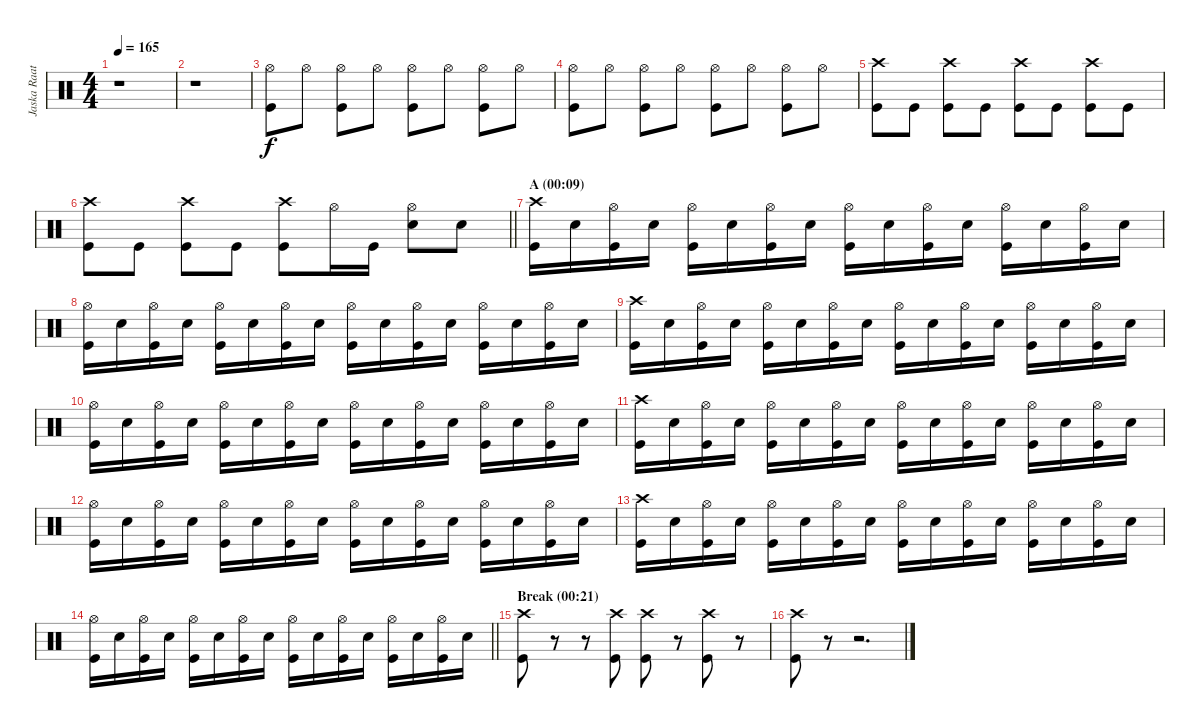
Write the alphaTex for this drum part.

\track ("Jaska Raatikainen" "Jaska Raat") {instrument percussion}
\staff {score}
\articulation defaults
\ts (4 4)
\tempo 165
\clef neutral
\ks c
r.1{dy f} |
r.1 |
("Hi-Hat (open)" "Kick (hit)").8 "Hi-Hat (open)".8 ("Hi-Hat (open)" "Kick (hit)").8 "Hi-Hat (open)".8 ("Hi-Hat (open)" "Kick (hit)").8 "Hi-Hat (open)".8 ("Hi-Hat (open)" "Kick (hit)").8 "Hi-Hat (open)".8 |
("Hi-Hat (open)" "Kick (hit)").8 "Hi-Hat (open)".8 ("Hi-Hat (open)" "Kick (hit)").8 "Hi-Hat (open)".8 ("Hi-Hat (open)" "Kick (hit)").8 "Hi-Hat (open)".8 ("Hi-Hat (open)" "Kick (hit)").8 "Hi-Hat (open)".8 |
("Crash high (hit)" "Kick (hit)").8 "Kick (hit)".8 ("Crash high (hit)" "Kick (hit)").8 "Kick (hit)".8 ("Crash high (hit)" "Kick (hit)").8 "Kick (hit)".8 ("Crash high (hit)" "Kick (hit)").8 "Kick (hit)".8 |
\barLineRight lightlight
("Crash high (hit)" "Kick (hit)").8 "Kick (hit)".8 ("Crash high (hit)" "Kick (hit)").8 "Kick (hit)".8 ("Crash high (hit)" "Kick (hit)").8 "Hi-Hat (open)".16 "Kick (hit)".16 ("Hi-Hat (open)" "Electric Snare (hit)").8 "Electric Snare (hit)".8 |
\section ("" "A (00:09)")
("Crash high (hit)" "Kick (hit)").16 "Electric Snare (hit)".16 ("Hi-Hat (open)" "Kick (hit)").16 "Electric Snare (hit)".16 ("Hi-Hat (open)" "Kick (hit)").16 "Electric Snare (hit)".16 ("Hi-Hat (open)" "Kick (hit)").16 "Electric Snare (hit)".16 ("Hi-Hat (open)" "Kick (hit)").16 "Electric Snare (hit)".16 ("Hi-Hat (open)" "Kick (hit)").16 "Electric Snare (hit)".16 ("Hi-Hat (open)" "Kick (hit)").16 "Electric Snare (hit)".16 ("Hi-Hat (open)" "Kick (hit)").16 "Electric Snare (hit)".16 |
("Hi-Hat (open)" "Kick (hit)").16 "Electric Snare (hit)".16 ("Hi-Hat (open)" "Kick (hit)").16 "Electric Snare (hit)".16 ("Hi-Hat (open)" "Kick (hit)").16 "Electric Snare (hit)".16 ("Hi-Hat (open)" "Kick (hit)").16 "Electric Snare (hit)".16 ("Hi-Hat (open)" "Kick (hit)").16 "Electric Snare (hit)".16 ("Hi-Hat (open)" "Kick (hit)").16 "Electric Snare (hit)".16 ("Hi-Hat (open)" "Kick (hit)").16 "Electric Snare (hit)".16 ("Hi-Hat (open)" "Kick (hit)").16 "Electric Snare (hit)".16 |
("Crash high (hit)" "Kick (hit)").16 "Electric Snare (hit)".16 ("Hi-Hat (open)" "Kick (hit)").16 "Electric Snare (hit)".16 ("Hi-Hat (open)" "Kick (hit)").16 "Electric Snare (hit)".16 ("Hi-Hat (open)" "Kick (hit)").16 "Electric Snare (hit)".16 ("Hi-Hat (open)" "Kick (hit)").16 "Electric Snare (hit)".16 ("Hi-Hat (open)" "Kick (hit)").16 "Electric Snare (hit)".16 ("Hi-Hat (open)" "Kick (hit)").16 "Electric Snare (hit)".16 ("Hi-Hat (open)" "Kick (hit)").16 "Electric Snare (hit)".16 |
("Hi-Hat (open)" "Kick (hit)").16 "Electric Snare (hit)".16 ("Hi-Hat (open)" "Kick (hit)").16 "Electric Snare (hit)".16 ("Hi-Hat (open)" "Kick (hit)").16 "Electric Snare (hit)".16 ("Hi-Hat (open)" "Kick (hit)").16 "Electric Snare (hit)".16 ("Hi-Hat (open)" "Kick (hit)").16 "Electric Snare (hit)".16 ("Hi-Hat (open)" "Kick (hit)").16 "Electric Snare (hit)".16 ("Hi-Hat (open)" "Kick (hit)").16 "Electric Snare (hit)".16 ("Hi-Hat (open)" "Kick (hit)").16 "Electric Snare (hit)".16 |
("Crash high (hit)" "Kick (hit)").16 "Electric Snare (hit)".16 ("Hi-Hat (open)" "Kick (hit)").16 "Electric Snare (hit)".16 ("Hi-Hat (open)" "Kick (hit)").16 "Electric Snare (hit)".16 ("Hi-Hat (open)" "Kick (hit)").16 "Electric Snare (hit)".16 ("Hi-Hat (open)" "Kick (hit)").16 "Electric Snare (hit)".16 ("Hi-Hat (open)" "Kick (hit)").16 "Electric Snare (hit)".16 ("Hi-Hat (open)" "Kick (hit)").16 "Electric Snare (hit)".16 ("Hi-Hat (open)" "Kick (hit)").16 "Electric Snare (hit)".16 |
("Hi-Hat (open)" "Kick (hit)").16 "Electric Snare (hit)".16 ("Hi-Hat (open)" "Kick (hit)").16 "Electric Snare (hit)".16 ("Hi-Hat (open)" "Kick (hit)").16 "Electric Snare (hit)".16 ("Hi-Hat (open)" "Kick (hit)").16 "Electric Snare (hit)".16 ("Hi-Hat (open)" "Kick (hit)").16 "Electric Snare (hit)".16 ("Hi-Hat (open)" "Kick (hit)").16 "Electric Snare (hit)".16 ("Hi-Hat (open)" "Kick (hit)").16 "Electric Snare (hit)".16 ("Hi-Hat (open)" "Kick (hit)").16 "Electric Snare (hit)".16 |
("Crash high (hit)" "Kick (hit)").16 "Electric Snare (hit)".16 ("Hi-Hat (open)" "Kick (hit)").16 "Electric Snare (hit)".16 ("Hi-Hat (open)" "Kick (hit)").16 "Electric Snare (hit)".16 ("Hi-Hat (open)" "Kick (hit)").16 "Electric Snare (hit)".16 ("Hi-Hat (open)" "Kick (hit)").16 "Electric Snare (hit)".16 ("Hi-Hat (open)" "Kick (hit)").16 "Electric Snare (hit)".16 ("Hi-Hat (open)" "Kick (hit)").16 "Electric Snare (hit)".16 ("Hi-Hat (open)" "Kick (hit)").16 "Electric Snare (hit)".16 |
\barLineRight lightlight
("Hi-Hat (open)" "Kick (hit)").16 "Electric Snare (hit)".16 ("Hi-Hat (open)" "Kick (hit)").16 "Electric Snare (hit)".16 ("Hi-Hat (open)" "Kick (hit)").16 "Electric Snare (hit)".16 ("Hi-Hat (open)" "Kick (hit)").16 "Electric Snare (hit)".16 ("Hi-Hat (open)" "Kick (hit)").16 "Electric Snare (hit)".16 ("Hi-Hat (open)" "Kick (hit)").16 "Electric Snare (hit)".16 ("Hi-Hat (open)" "Kick (hit)").16 "Electric Snare (hit)".16 ("Hi-Hat (open)" "Kick (hit)").16 "Electric Snare (hit)".16 |
\section ("" "Break (00:21)")
("Crash high (hit)" "Kick (hit)").8 r.8 r.8 ("Crash high (hit)" "Kick (hit)").8 ("Crash high (hit)" "Kick (hit)").8 r.8 ("Crash high (hit)" "Kick (hit)").8 r.8 |
("Crash high (hit)" "Kick (hit)").8 r.8 r.2{d}
